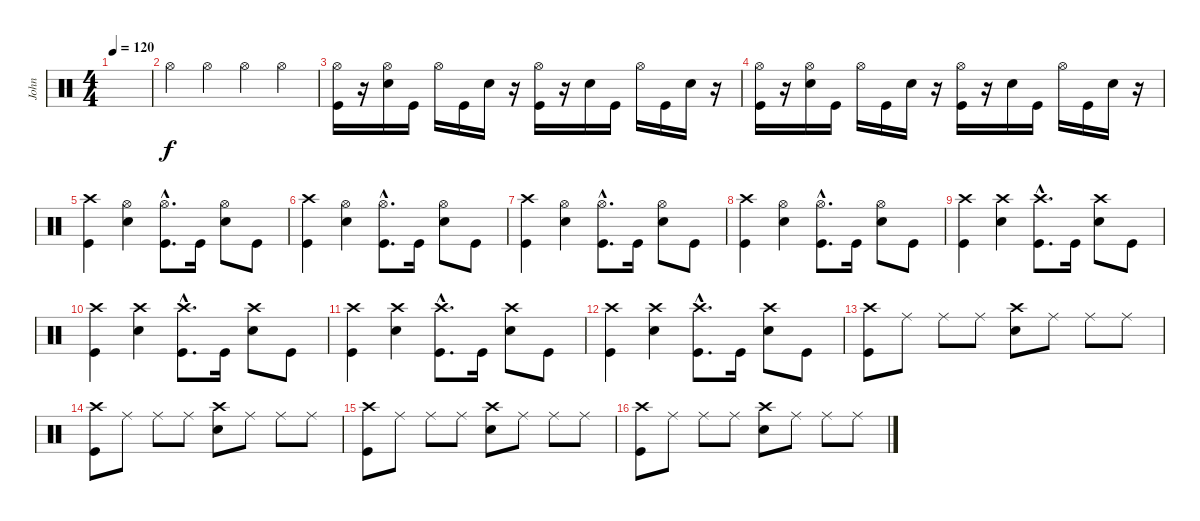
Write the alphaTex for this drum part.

\track ("John" "John") {instrument percussion}
\staff {score}
\articulation defaults
\ts (4 4)
\tempo 120
\clef neutral
\ks c
|
"Hi-Hat (open)".4 "Hi-Hat (open)".4 "Hi-Hat (open)".4 "Hi-Hat (open)".4 |
("Hi-Hat (open)" "Kick (hit)").16 r.16 ("Hi-Hat (open)" "Snare (hit) 2").16 "Kick (hit)".16 "Hi-Hat (open)".16 "Kick (hit)".16 "Snare (hit) 2".16 r.16 ("Hi-Hat (open)" "Kick (hit)").16 r.16 "Snare (hit) 2".16 "Kick (hit)".16 "Hi-Hat (open)".16 "Kick (hit)".16 "Snare (hit) 2".16 r.16 |
("Hi-Hat (open)" "Kick (hit)").16 r.16 ("Hi-Hat (open)" "Snare (hit) 2").16 "Kick (hit)".16 "Hi-Hat (open)".16 "Kick (hit)".16 "Snare (hit) 2".16 r.16 ("Hi-Hat (open)" "Kick (hit)").16 r.16 "Snare (hit) 2".16 "Kick (hit)".16 "Hi-Hat (open)".16 "Kick (hit)".16 "Snare (hit) 2".16 r.16 |
("Crash high (hit)" "Kick (hit)").4 ("Hi-Hat (open)" "Snare (hit) 2").4 ("Hi-Hat (open)"{hac} "Kick (hit)"{hac}).8{d} "Kick (hit)".16 ("Hi-Hat (open)" "Snare (hit) 2").8 "Kick (hit)".8 |
("Crash high (hit)" "Kick (hit)").4 ("Hi-Hat (open)" "Snare (hit) 2").4 ("Hi-Hat (open)"{hac} "Kick (hit)"{hac}).8{d} "Kick (hit)".16 ("Hi-Hat (open)" "Snare (hit) 2").8 "Kick (hit)".8 |
("Crash high (hit)" "Kick (hit)").4 ("Hi-Hat (open)" "Snare (hit) 2").4 ("Hi-Hat (open)"{hac} "Kick (hit)"{hac}).8{d} "Kick (hit)".16 ("Hi-Hat (open)" "Snare (hit) 2").8 "Kick (hit)".8 |
("Crash high (hit)" "Kick (hit)").4 ("Hi-Hat (open)" "Snare (hit) 2").4 ("Hi-Hat (open)"{hac} "Kick (hit)"{hac}).8{d} "Kick (hit)".16 ("Hi-Hat (open)" "Snare (hit) 2").8 "Kick (hit)".8 |
("Crash high (hit)" "Kick (hit)").4 ("Crash high (hit)" "Snare (hit) 2").4 ("Crash high (hit)"{hac} "Kick (hit)"{hac}).8{d} "Kick (hit)".16 ("Crash high (hit)" "Snare (hit) 2").8 "Kick (hit)".8 |
("Crash high (hit)" "Kick (hit)").4 ("Crash high (hit)" "Snare (hit) 2").4 ("Crash high (hit)"{hac} "Kick (hit)"{hac}).8{d} "Kick (hit)".16 ("Crash high (hit)" "Snare (hit) 2").8 "Kick (hit)".8 |
("Crash high (hit)" "Kick (hit)").4 ("Crash high (hit)" "Snare (hit) 2").4 ("Crash high (hit)"{hac} "Kick (hit)"{hac}).8{d} "Kick (hit)".16 ("Crash high (hit)" "Snare (hit) 2").8 "Kick (hit)".8 |
("Crash high (hit)" "Kick (hit)").4 ("Crash high (hit)" "Snare (hit) 2").4 ("Crash high (hit)"{hac} "Kick (hit)"{hac}).8{d} "Kick (hit)".16 ("Crash high (hit)" "Snare (hit) 2").8 "Kick (hit)".8 |
("Crash high (hit)" "Kick (hit)").8 "Ride (middle)".8 "Ride (middle)".8 "Ride (middle)".8 ("Crash high (hit)" "Snare (hit) 2").8 "Ride (middle)".8 "Ride (middle)".8 "Ride (middle)".8 |
("Crash high (hit)" "Kick (hit)").8 "Ride (middle)".8 "Ride (middle)".8 "Ride (middle)".8 ("Crash high (hit)" "Snare (hit) 2").8 "Ride (middle)".8 "Ride (middle)".8 "Ride (middle)".8 |
("Crash high (hit)" "Kick (hit)").8 "Ride (middle)".8 "Ride (middle)".8 "Ride (middle)".8 ("Crash high (hit)" "Snare (hit) 2").8 "Ride (middle)".8 "Ride (middle)".8 "Ride (middle)".8 |
("Crash high (hit)" "Kick (hit)").8 "Ride (middle)".8 "Ride (middle)".8 "Ride (middle)".8 ("Crash high (hit)" "Snare (hit) 2").8 "Ride (middle)".8 "Ride (middle)".8 "Ride (middle)".8
